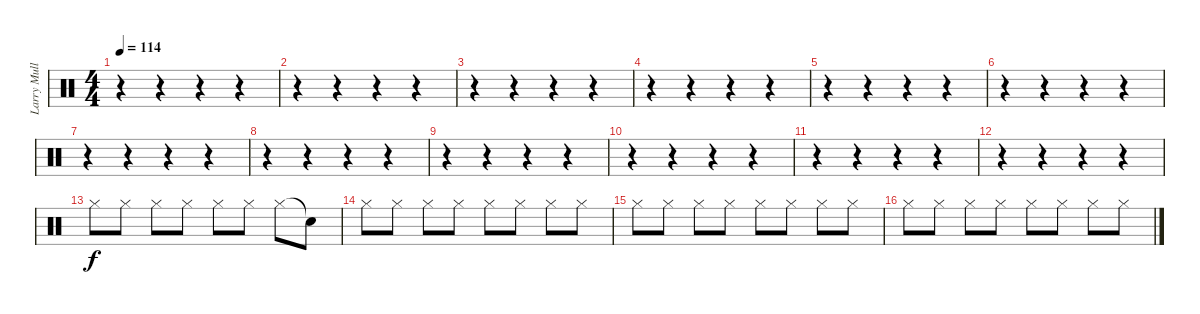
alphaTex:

\track ("Larry Mullen Jr suplement for midi" "Larry Mull") {instrument percussion}
\staff {score}
\articulation defaults
\ts (4 4)
\tempo 114
\clef neutral
\ks c
r.4{dy f} r.4 r.4 r.4 |
r.4 r.4 r.4 r.4 |
r.4 r.4 r.4 r.4 |
r.4 r.4 r.4 r.4 |
r.4 r.4 r.4 r.4 |
r.4 r.4 r.4 r.4 |
r.4 r.4 r.4 r.4 |
r.4 r.4 r.4 r.4 |
r.4 r.4 r.4 r.4 |
r.4 r.4 r.4 r.4 |
r.4 r.4 r.4 r.4 |
r.4 r.4 r.4 r.4 |
"Hi-Hat (closed)".8{volume 11} "Hi-Hat (closed)".8 "Hi-Hat (closed)".8 "Hi-Hat (closed)".8 "Hi-Hat (closed)".8 "Hi-Hat (closed)".8 "Hi-Hat (closed)".8 "Snare (hit)"{t}.8 |
"Hi-Hat (closed)".8 "Hi-Hat (closed)".8 "Hi-Hat (closed)".8 "Hi-Hat (closed)".8 "Hi-Hat (closed)".8 "Hi-Hat (closed)".8 "Hi-Hat (closed)".8 "Hi-Hat (closed)".8 |
"Hi-Hat (closed)".8 "Hi-Hat (closed)".8 "Hi-Hat (closed)".8 "Hi-Hat (closed)".8 "Hi-Hat (closed)".8 "Hi-Hat (closed)".8 "Hi-Hat (closed)".8 "Hi-Hat (closed)".8 |
"Hi-Hat (closed)".8 "Hi-Hat (closed)".8 "Hi-Hat (closed)".8 "Hi-Hat (closed)".8 "Hi-Hat (closed)".8 "Hi-Hat (closed)".8 "Hi-Hat (closed)".8 "Hi-Hat (closed)".8
